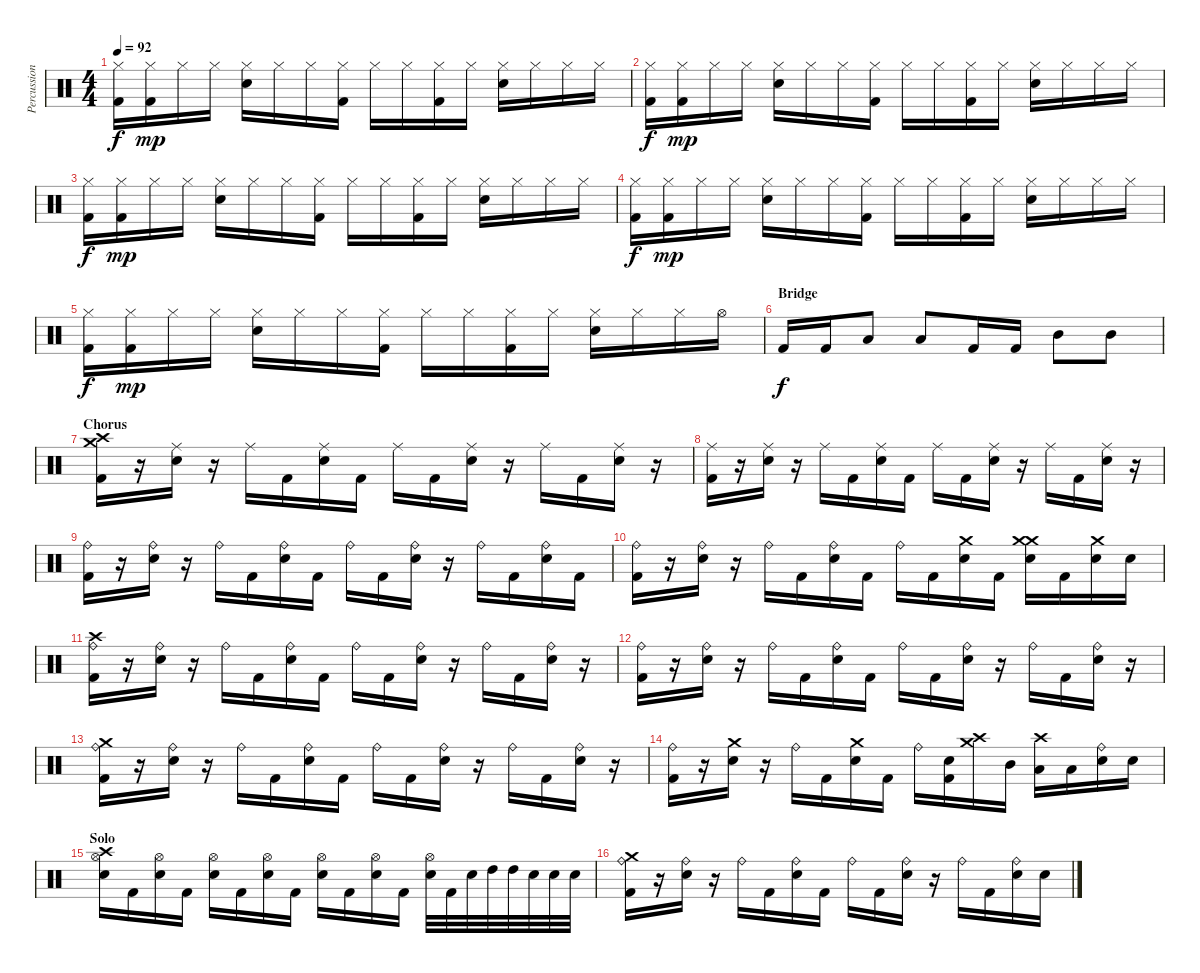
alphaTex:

\track ("Percussion" "Percussion") {instrument percussion}
\staff {score}
\articulation defaults
\ts (4 4)
\tempo 92
\clef neutral
\ks c
("Hi-Hat (closed)" "Kick (hit) 2").16{dy f} ("Hi-Hat (closed)" "Kick (hit) 2").16{dy mp} "Hi-Hat (closed)".16 "Hi-Hat (closed)".16 ("Hi-Hat (closed)" "Snare (hit) 2").16 "Hi-Hat (closed)".16 "Hi-Hat (closed)".16 ("Hi-Hat (closed)" "Kick (hit) 2").16 "Hi-Hat (closed)".16 "Hi-Hat (closed)".16 ("Hi-Hat (closed)" "Kick (hit) 2").16 "Hi-Hat (closed)".16 ("Hi-Hat (closed)" "Snare (hit) 2").16 "Hi-Hat (closed)".16 "Hi-Hat (closed)".16 "Hi-Hat (closed)".16 |
("Hi-Hat (closed)" "Kick (hit) 2").16{dy f} ("Hi-Hat (closed)" "Kick (hit) 2").16{dy mp} "Hi-Hat (closed)".16 "Hi-Hat (closed)".16 ("Hi-Hat (closed)" "Snare (hit) 2").16 "Hi-Hat (closed)".16 "Hi-Hat (closed)".16 ("Hi-Hat (closed)" "Kick (hit) 2").16 "Hi-Hat (closed)".16 "Hi-Hat (closed)".16 ("Hi-Hat (closed)" "Kick (hit) 2").16 "Hi-Hat (closed)".16 ("Hi-Hat (closed)" "Snare (hit) 2").16 "Hi-Hat (closed)".16 "Hi-Hat (closed)".16 "Hi-Hat (closed)".16 |
("Hi-Hat (closed)" "Kick (hit) 2").16{dy f} ("Hi-Hat (closed)" "Kick (hit) 2").16{dy mp} "Hi-Hat (closed)".16 "Hi-Hat (closed)".16 ("Hi-Hat (closed)" "Snare (hit) 2").16 "Hi-Hat (closed)".16 "Hi-Hat (closed)".16 ("Hi-Hat (closed)" "Kick (hit) 2").16 "Hi-Hat (closed)".16 "Hi-Hat (closed)".16 ("Hi-Hat (closed)" "Kick (hit) 2").16 "Hi-Hat (closed)".16 ("Hi-Hat (closed)" "Snare (hit) 2").16 "Hi-Hat (closed)".16 "Hi-Hat (closed)".16 "Hi-Hat (closed)".16 |
("Hi-Hat (closed)" "Kick (hit) 2").16{dy f} ("Hi-Hat (closed)" "Kick (hit) 2").16{dy mp} "Hi-Hat (closed)".16 "Hi-Hat (closed)".16 ("Hi-Hat (closed)" "Snare (hit) 2").16 "Hi-Hat (closed)".16 "Hi-Hat (closed)".16 ("Hi-Hat (closed)" "Kick (hit) 2").16 "Hi-Hat (closed)".16 "Hi-Hat (closed)".16 ("Hi-Hat (closed)" "Kick (hit) 2").16 "Hi-Hat (closed)".16 ("Hi-Hat (closed)" "Snare (hit) 2").16 "Hi-Hat (closed)".16 "Hi-Hat (closed)".16 "Hi-Hat (closed)".16 |
("Hi-Hat (closed)" "Kick (hit) 2").16{dy f} ("Hi-Hat (closed)" "Kick (hit) 2").16{dy mp} "Hi-Hat (closed)".16 "Hi-Hat (closed)".16 ("Hi-Hat (closed)" "Snare (hit) 2").16 "Hi-Hat (closed)".16 "Hi-Hat (closed)".16 ("Hi-Hat (closed)" "Kick (hit) 2").16 "Hi-Hat (closed)".16 "Hi-Hat (closed)".16 ("Hi-Hat (closed)" "Kick (hit) 2").16 "Hi-Hat (closed)".16 ("Hi-Hat (closed)" "Snare (hit) 2").16 "Hi-Hat (closed)".16 "Hi-Hat (closed)".16 "Hi-Hat (open)".16 |
\section ("" "Bridge")
"Kick (hit) 2".16{dy f} "Kick (hit) 2".16 "Low Tom (hit)".8 "Low Tom (hit)".8 "Kick (hit) 2".16 "Kick (hit) 2".16 "Mid Tom (hit)".8 "Mid Tom (hit)".8 |
\section ("" "Chorus")
("Crash high (hit)" "Crash medium (hit)" "Kick (hit) 2").16 r.16 ("Ride (middle)" "Snare (hit) 2").16 r.16 "Ride (middle)".16 "Kick (hit) 2".16 ("Ride (middle)" "Snare (hit) 2").16 "Kick (hit) 2".16 "Ride (middle)".16 "Kick (hit) 2".16 ("Ride (middle)" "Snare (hit) 2").16 r.16 "Ride (middle)".16 "Kick (hit) 2".16 ("Ride (middle)" "Snare (hit) 2").16 r.16 |
("Ride (middle)" "Kick (hit) 2").16 r.16 ("Ride (middle)" "Snare (hit) 2").16 r.16 "Ride (middle)".16 "Kick (hit) 2".16 ("Ride (middle)" "Snare (hit) 2").16 "Kick (hit) 2".16 "Ride (middle)".16 "Kick (hit) 2".16 ("Ride (middle)" "Snare (hit) 2").16 r.16 "Ride (middle)".16 "Kick (hit) 2".16 ("Ride (middle)" "Snare (hit) 2").16 r.16 |
("Ride (bell)" "Kick (hit) 2").16 r.16 ("Ride (bell)" "Snare (hit) 2").16 r.16 "Ride (bell)".16 "Kick (hit) 2".16 ("Ride (bell)" "Snare (hit) 2").16 "Kick (hit) 2".16 "Ride (bell)".16 "Kick (hit) 2".16 ("Ride (bell)" "Snare (hit) 2").16 r.16 "Ride (bell)".16 "Kick (hit) 2".16 ("Ride (bell)" "Snare (hit) 2").16 "Kick (hit) 2".16 |
("Ride (bell)" "Kick (hit) 2").16 r.16 ("Ride (bell)" "Snare (hit) 2").16 r.16 "Ride (bell)".16 "Kick (hit) 2".16 ("Ride (bell)" "Snare (hit) 2").16 "Kick (hit) 2".16 "Ride (bell)".16 "Kick (hit) 2".16 ("Crash medium (hit)" "Snare (hit) 2").16 "Kick (hit) 2".16 ("Crash medium (hit)" "Crash medium (hit)" "Snare (hit) 2").16 "Kick (hit) 2".16 ("Crash medium (hit)" "Snare (hit) 2").16 "Snare (hit) 2".16 |
("Ride (bell)" "Crash high (hit)" "Kick (hit) 2").16 r.16 ("Ride (bell)" "Snare (hit) 2").16 r.16 "Ride (bell)".16 "Kick (hit) 2".16 ("Ride (bell)" "Snare (hit) 2").16 "Kick (hit) 2".16 "Ride (bell)".16 "Kick (hit) 2".16 ("Ride (bell)" "Snare (hit) 2").16 r.16 "Ride (bell)".16 "Kick (hit) 2".16 ("Ride (bell)" "Snare (hit) 2").16 r.16 |
("Ride (bell)" "Kick (hit) 2").16 r.16 ("Ride (bell)" "Snare (hit) 2").16 r.16 "Ride (bell)".16 "Kick (hit) 2".16 ("Ride (bell)" "Snare (hit) 2").16 "Kick (hit) 2".16 "Ride (bell)".16 "Kick (hit) 2".16 ("Ride (bell)" "Snare (hit) 2").16 r.16 "Ride (bell)".16 "Kick (hit) 2".16 ("Ride (bell)" "Snare (hit) 2").16 r.16 |
("Ride (bell)" "Crash medium (hit)" "Kick (hit) 2").16 r.16 ("Ride (bell)" "Snare (hit) 2").16 r.16 "Ride (bell)".16 "Kick (hit) 2".16 ("Ride (bell)" "Snare (hit) 2").16 "Kick (hit) 2".16 "Ride (bell)".16 "Kick (hit) 2".16 ("Ride (bell)" "Snare (hit) 2").16 r.16 "Ride (bell)".16 "Kick (hit) 2".16 ("Ride (bell)" "Snare (hit) 2").16 r.16 |
("Ride (bell)" "Kick (hit) 2").16 r.16 ("Crash medium (hit)" "Snare (hit) 2").16 r.16 "Ride (bell)".16 "Kick (hit) 2".16 ("Crash medium (hit)" "Snare (hit) 2").16 "Kick (hit) 2".16 "Ride (bell)".16 ("Snare (hit) 2" "Kick (hit) 2").16 ("Crash medium (hit)" "Crash high (hit)").16 "Mid Tom (hit)".16 ("Crash high (hit)" "Low Tom (hit)").16 "Low Tom (hit)".16 ("Ride (bell)" "Snare (hit) 2").16 "Snare (hit) 2".16 |
\section ("" "Solo")
("Hi-Hat (open)" "Crash high (hit)" "Snare (hit) 2").16 "Kick (hit) 2".16 ("Hi-Hat (open)" "Snare (hit) 2").16 "Kick (hit) 2".16 ("Hi-Hat (open)" "Snare (hit) 2").16 "Kick (hit) 2".16 ("Hi-Hat (open)" "Snare (hit) 2").16 "Kick (hit) 2".16 ("Hi-Hat (open)" "Snare (hit) 2").16 "Kick (hit) 2".16 ("Hi-Hat (open)" "Snare (hit) 2").16 "Kick (hit) 2".16 ("Hi-Hat (open)" "Snare (hit) 2").32 "Kick (hit) 2".32 "Snare (hit) 2".32 "High Tom (hit)".32 "High Tom (hit)".32 "Snare (hit) 2".32 "Snare (hit) 2".32 "Snare (hit) 2".32 |
("Ride (bell)" "Crash medium (hit)" "Kick (hit) 2").16 r.16 ("Ride (bell)" "Snare (hit) 2").16 r.16 "Ride (bell)".16 "Kick (hit) 2".16 ("Ride (bell)" "Snare (hit) 2").16 "Kick (hit) 2".16 "Ride (bell)".16 "Kick (hit) 2".16 ("Ride (bell)" "Snare (hit) 2").16 r.16 "Ride (bell)".16 "Kick (hit) 2".16 ("Ride (bell)" "Snare (hit) 2").16 "Snare (hit) 2".16
